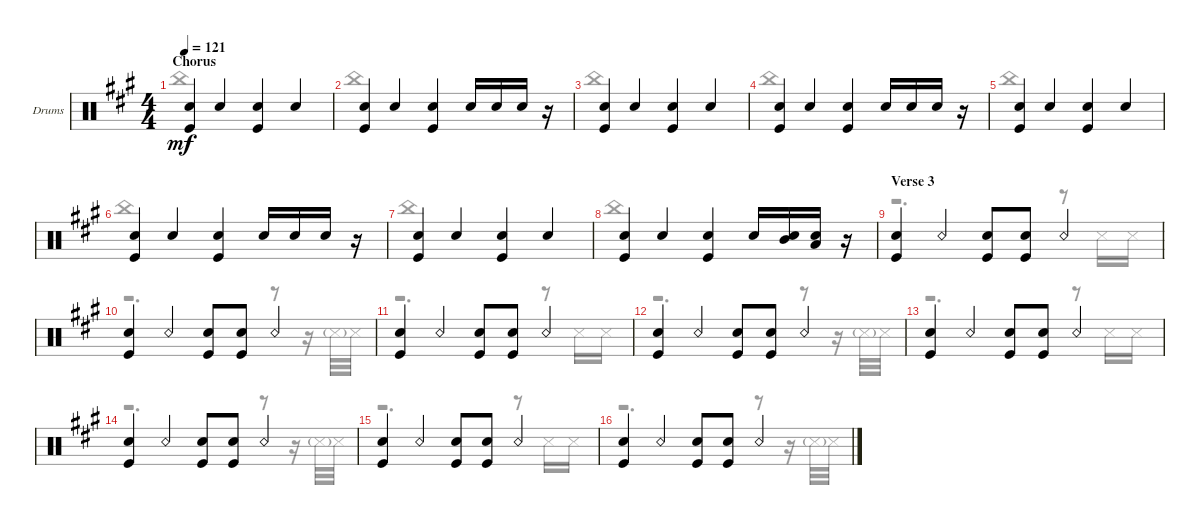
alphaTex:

\defaultSystemsLayout 4
\bracketExtendMode groupsimilarinstruments
\firstSystemTrackNameOrientation horizontal
\otherSystemsTrackNameOrientation horizontal
\track ("Drumkit" "Drums") {instrument percussion}
\staff {score}
\articulation defaults
\voice
\ts (4 4)
\section ("" "Chorus")
\tempo 121
\clef neutral
\ks a
("Kick (hit)" "Snare (hit) 2").4{dy mf} "Snare (hit) 2".4 ("Kick (hit)" "Snare (hit) 2").4 "Snare (hit) 2".4 |
("Kick (hit)" "Snare (hit) 2").4 "Snare (hit) 2".4 ("Kick (hit)" "Snare (hit) 2").4 "Snare (hit) 2".16 "Snare (hit) 2".16 "Snare (hit) 2".16 r.16 |
("Kick (hit)" "Snare (hit) 2").4 "Snare (hit) 2".4 ("Kick (hit)" "Snare (hit) 2").4 "Snare (hit) 2".4 |
("Kick (hit)" "Snare (hit) 2").4 "Snare (hit) 2".4 ("Kick (hit)" "Snare (hit) 2").4 "Snare (hit) 2".16 "Snare (hit) 2".16 "Snare (hit) 2".16 r.16 |
("Kick (hit)" "Snare (hit) 2").4 "Snare (hit) 2".4 ("Kick (hit)" "Snare (hit) 2").4 "Snare (hit) 2".4 |
("Kick (hit)" "Snare (hit) 2").4 "Snare (hit) 2".4 ("Kick (hit)" "Snare (hit) 2").4 "Snare (hit) 2".16 "Snare (hit) 2".16 "Snare (hit) 2".16 r.16 |
("Kick (hit)" "Snare (hit) 2").4 "Snare (hit) 2".4 ("Kick (hit)" "Snare (hit) 2").4 "Snare (hit) 2".4 |
("Kick (hit)" "Snare (hit) 2").4 "Snare (hit) 2".4 ("Kick (hit)" "Snare (hit) 2").4 "Snare (hit) 2".16 ("Mid Tom (hit)" "Snare (hit) 2").16 ("Low Tom (hit)" "Snare (hit) 2").16 r.16 |
\section ("" "Verse 3")
("Kick (hit)" "Snare (hit) 2").4 "Snare (rim shot)".4 ("Kick (hit)" "Snare (hit) 2").8 ("Kick (hit)" "Snare (hit) 2").8 "Snare (rim shot)".4 |
("Kick (hit)" "Snare (hit) 2").4 "Snare (rim shot)".4 ("Kick (hit)" "Snare (hit) 2").8 ("Kick (hit)" "Snare (hit) 2").8 "Snare (rim shot)".4 |
("Kick (hit)" "Snare (hit) 2").4 "Snare (rim shot)".4 ("Kick (hit)" "Snare (hit) 2").8 ("Kick (hit)" "Snare (hit) 2").8 "Snare (rim shot)".4 |
("Kick (hit)" "Snare (hit) 2").4 "Snare (rim shot)".4 ("Kick (hit)" "Snare (hit) 2").8 ("Kick (hit)" "Snare (hit) 2").8 "Snare (rim shot)".4 |
("Kick (hit)" "Snare (hit) 2").4 "Snare (rim shot)".4 ("Kick (hit)" "Snare (hit) 2").8 ("Kick (hit)" "Snare (hit) 2").8 "Snare (rim shot)".4 |
("Kick (hit)" "Snare (hit) 2").4 "Snare (rim shot)".4 ("Kick (hit)" "Snare (hit) 2").8 ("Kick (hit)" "Snare (hit) 2").8 "Snare (rim shot)".4 |
("Kick (hit)" "Snare (hit) 2").4 "Snare (rim shot)".4 ("Kick (hit)" "Snare (hit) 2").8 ("Kick (hit)" "Snare (hit) 2").8 "Snare (rim shot)".4 |
("Kick (hit)" "Snare (hit) 2").4 "Snare (rim shot)".4 ("Kick (hit)" "Snare (hit) 2").8 ("Kick (hit)" "Snare (hit) 2").8 "Snare (rim shot)".4
\voice
\clef neutral
\ottava regular
\simile none
\ks a "China (hit)".1{dy mf}
|
"China (hit)".1 |
"China (hit)".1 |
"China (hit)".1 |
"China (hit)".1 |
"China (hit)".1 |
"China (hit)".1 |
"China (hit)".1 |
r.2{d} r.8 "Snare (side stick) 3".16 "Snare (side stick) 3".16 |
r.2{d} r.8 r.16 "Snare (side stick) 3"{g}.32 "Snare (side stick) 3".32 |
r.2{d} r.8 "Snare (side stick) 3".16 "Snare (side stick) 3".16 |
r.2{d} r.8 r.16 "Snare (side stick) 3"{g}.32 "Snare (side stick) 3".32 |
r.2{d} r.8 "Snare (side stick) 3".16 "Snare (side stick) 3".16 |
r.2{d} r.8 r.16 "Snare (side stick) 3"{g}.32 "Snare (side stick) 3".32 |
r.2{d} r.8 "Snare (side stick) 3".16 "Snare (side stick) 3".16 |
r.2{d} r.8 r.16 "Snare (side stick) 3"{g}.32 "Snare (side stick) 3".32
